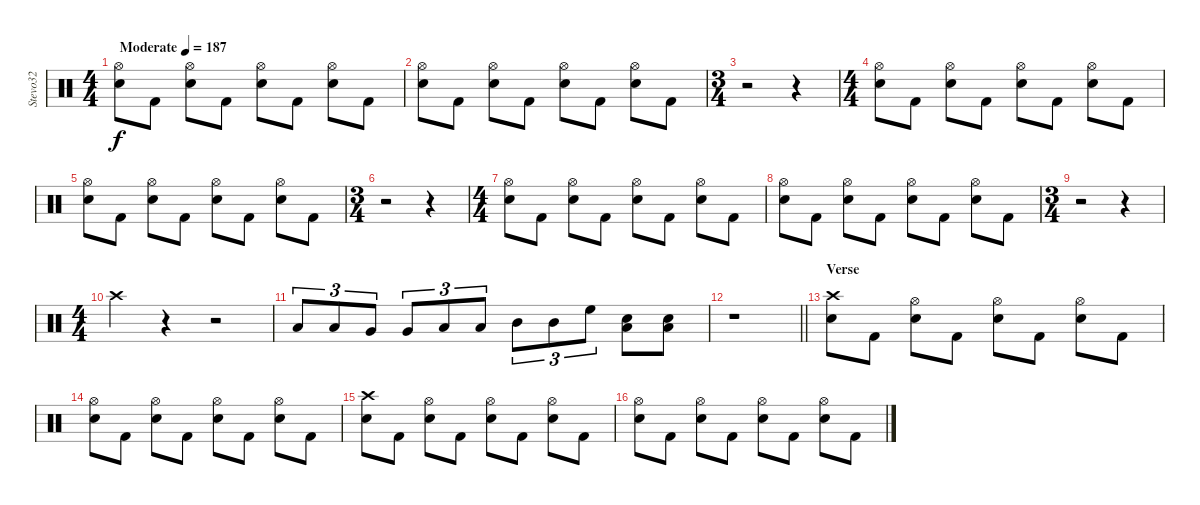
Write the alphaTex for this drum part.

\track ("Stevo32" "Stevo32") {instrument percussion}
\staff {score}
\articulation defaults
\ts (4 4)
\tempo (187 "Moderate")
\clef neutral
\ks c
("Snare (hit) 2" "Hi-Hat (open)").8{dy f} "Kick (hit) 2".8 ("Snare (hit) 2" "Hi-Hat (open)").8 "Kick (hit) 2".8 ("Snare (hit) 2" "Hi-Hat (open)").8 "Kick (hit) 2".8 ("Snare (hit) 2" "Hi-Hat (open)").8 "Kick (hit) 2".8 |
("Snare (hit) 2" "Hi-Hat (open)").8 "Kick (hit) 2".8 ("Snare (hit) 2" "Hi-Hat (open)").8 "Kick (hit) 2".8 ("Snare (hit) 2" "Hi-Hat (open)").8 "Kick (hit) 2".8 ("Snare (hit) 2" "Hi-Hat (open)").8 "Kick (hit) 2".8 |
\ts (3 4)
r.2 r.4 |
\ts (4 4)
("Snare (hit) 2" "Hi-Hat (open)").8 "Kick (hit) 2".8 ("Snare (hit) 2" "Hi-Hat (open)").8 "Kick (hit) 2".8 ("Snare (hit) 2" "Hi-Hat (open)").8 "Kick (hit) 2".8 ("Snare (hit) 2" "Hi-Hat (open)").8 "Kick (hit) 2".8 |
("Snare (hit) 2" "Hi-Hat (open)").8 "Kick (hit) 2".8 ("Snare (hit) 2" "Hi-Hat (open)").8 "Kick (hit) 2".8 ("Snare (hit) 2" "Hi-Hat (open)").8 "Kick (hit) 2".8 ("Snare (hit) 2" "Hi-Hat (open)").8 "Kick (hit) 2".8 |
\ts (3 4)
r.2 r.4 |
\ts (4 4)
("Snare (hit) 2" "Hi-Hat (open)").8 "Kick (hit) 2".8 ("Snare (hit) 2" "Hi-Hat (open)").8 "Kick (hit) 2".8 ("Snare (hit) 2" "Hi-Hat (open)").8 "Kick (hit) 2".8 ("Snare (hit) 2" "Hi-Hat (open)").8 "Kick (hit) 2".8 |
("Snare (hit) 2" "Hi-Hat (open)").8 "Kick (hit) 2".8 ("Snare (hit) 2" "Hi-Hat (open)").8 "Kick (hit) 2".8 ("Snare (hit) 2" "Hi-Hat (open)").8 "Kick (hit) 2".8 ("Snare (hit) 2" "Hi-Hat (open)").8 "Kick (hit) 2".8 |
\ts (3 4)
r.2 r.4 |
\ts (4 4)
"Crash high (hit)".4 r.4 r.2 |
"Low Floor Tom (hit)".8{tu (3 2)} "Low Floor Tom (hit)".8{tu (3 2)} "Very Low Tom (hit)".8{tu (3 2)} "Very Low Tom (hit)".8{tu (3 2)} "Low Tom (hit)".8{tu (3 2)} "Low Tom (hit)".8{tu (3 2)} "Mid Tom (hit)".8{tu (3 2)} "Mid Tom (hit)".8{tu (3 2)} "High Floor Tom (hit)".8{tu (3 2)} ("Low Floor Tom (hit)" "Snare (hit) 2").8 ("Low Floor Tom (hit)" "Snare (hit) 2").8 |
\barLineRight lightlight
r.1 |
\section ("" "Verse")
("Crash high (hit)" "Snare (hit) 2").8 "Kick (hit) 2".8 ("Snare (hit) 2" "Hi-Hat (open)").8 "Kick (hit) 2".8 ("Snare (hit) 2" "Hi-Hat (open)").8 "Kick (hit) 2".8 ("Snare (hit) 2" "Hi-Hat (open)").8 "Kick (hit) 2".8 |
("Snare (hit) 2" "Hi-Hat (open)").8 "Kick (hit) 2".8 ("Snare (hit) 2" "Hi-Hat (open)").8 "Kick (hit) 2".8 ("Snare (hit) 2" "Hi-Hat (open)").8 "Kick (hit) 2".8 ("Snare (hit) 2" "Hi-Hat (open)").8 "Kick (hit) 2".8 |
("Crash high (hit)" "Snare (hit) 2").8 "Kick (hit) 2".8 ("Snare (hit) 2" "Hi-Hat (open)").8 "Kick (hit) 2".8 ("Snare (hit) 2" "Hi-Hat (open)").8 "Kick (hit) 2".8 ("Snare (hit) 2" "Hi-Hat (open)").8 "Kick (hit) 2".8 |
("Snare (hit) 2" "Hi-Hat (open)").8 "Kick (hit) 2".8 ("Snare (hit) 2" "Hi-Hat (open)").8 "Kick (hit) 2".8 ("Snare (hit) 2" "Hi-Hat (open)").8 "Kick (hit) 2".8 ("Snare (hit) 2" "Hi-Hat (open)").8 "Kick (hit) 2".8
